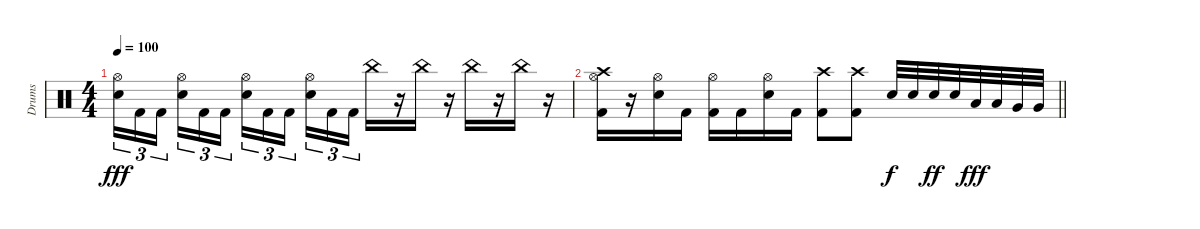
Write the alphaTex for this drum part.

\track ("Drums" "Drums") {instrument percussion}
\staff {score}
\articulation defaults
\ts (4 4)
\tempo 100
\clef neutral
\ks c
("Snare (hit) 2" "Hi-Hat (open)").16{tu (3 2) dy fff} "Kick (hit) 2".16{tu (3 2)} "Kick (hit) 2".16{tu (3 2) beam splitsecondary} ("Snare (hit) 2" "Hi-Hat (open)").16{tu (3 2)} "Kick (hit) 2".16{tu (3 2)} "Kick (hit) 2".16{tu (3 2)} ("Snare (hit) 2" "Hi-Hat (open)").16{tu (3 2)} "Kick (hit) 2".16{tu (3 2)} "Kick (hit) 2".16{tu (3 2) beam splitsecondary} ("Snare (hit) 2" "Hi-Hat (open)").16{tu (3 2)} "Kick (hit) 2".16{tu (3 2)} "Kick (hit) 2".16{tu (3 2)} "China (hit)".16 r.16 "China (hit)".16 r.16 "China (hit)".16 r.16 "China (hit)".16 r.16 |
\barLineRight lightlight
("Crash high (hit)" "Hi-Hat (open)" "Kick (hit) 2").16 r.16 ("Hi-Hat (open)" "Snare (hit) 2").16 "Kick (hit) 2".16 ("Hi-Hat (open)" "Kick (hit) 2").16 "Kick (hit) 2".16 ("Hi-Hat (open)" "Snare (hit) 2").16 "Kick (hit) 2".16 ("Crash high (hit)" "Kick (hit) 2").8 ("Crash high (hit)" "Kick (hit) 2").8 "Snare (hit) 2".32{dy f} "Snare (hit) 2".32 "Snare (hit) 2".32{dy ff} "Snare (hit) 2".32 "Low Tom (hit)".32{dy fff} "Low Tom (hit)".32 "Very Low Tom (hit)".32 "Very Low Tom (hit)".32
